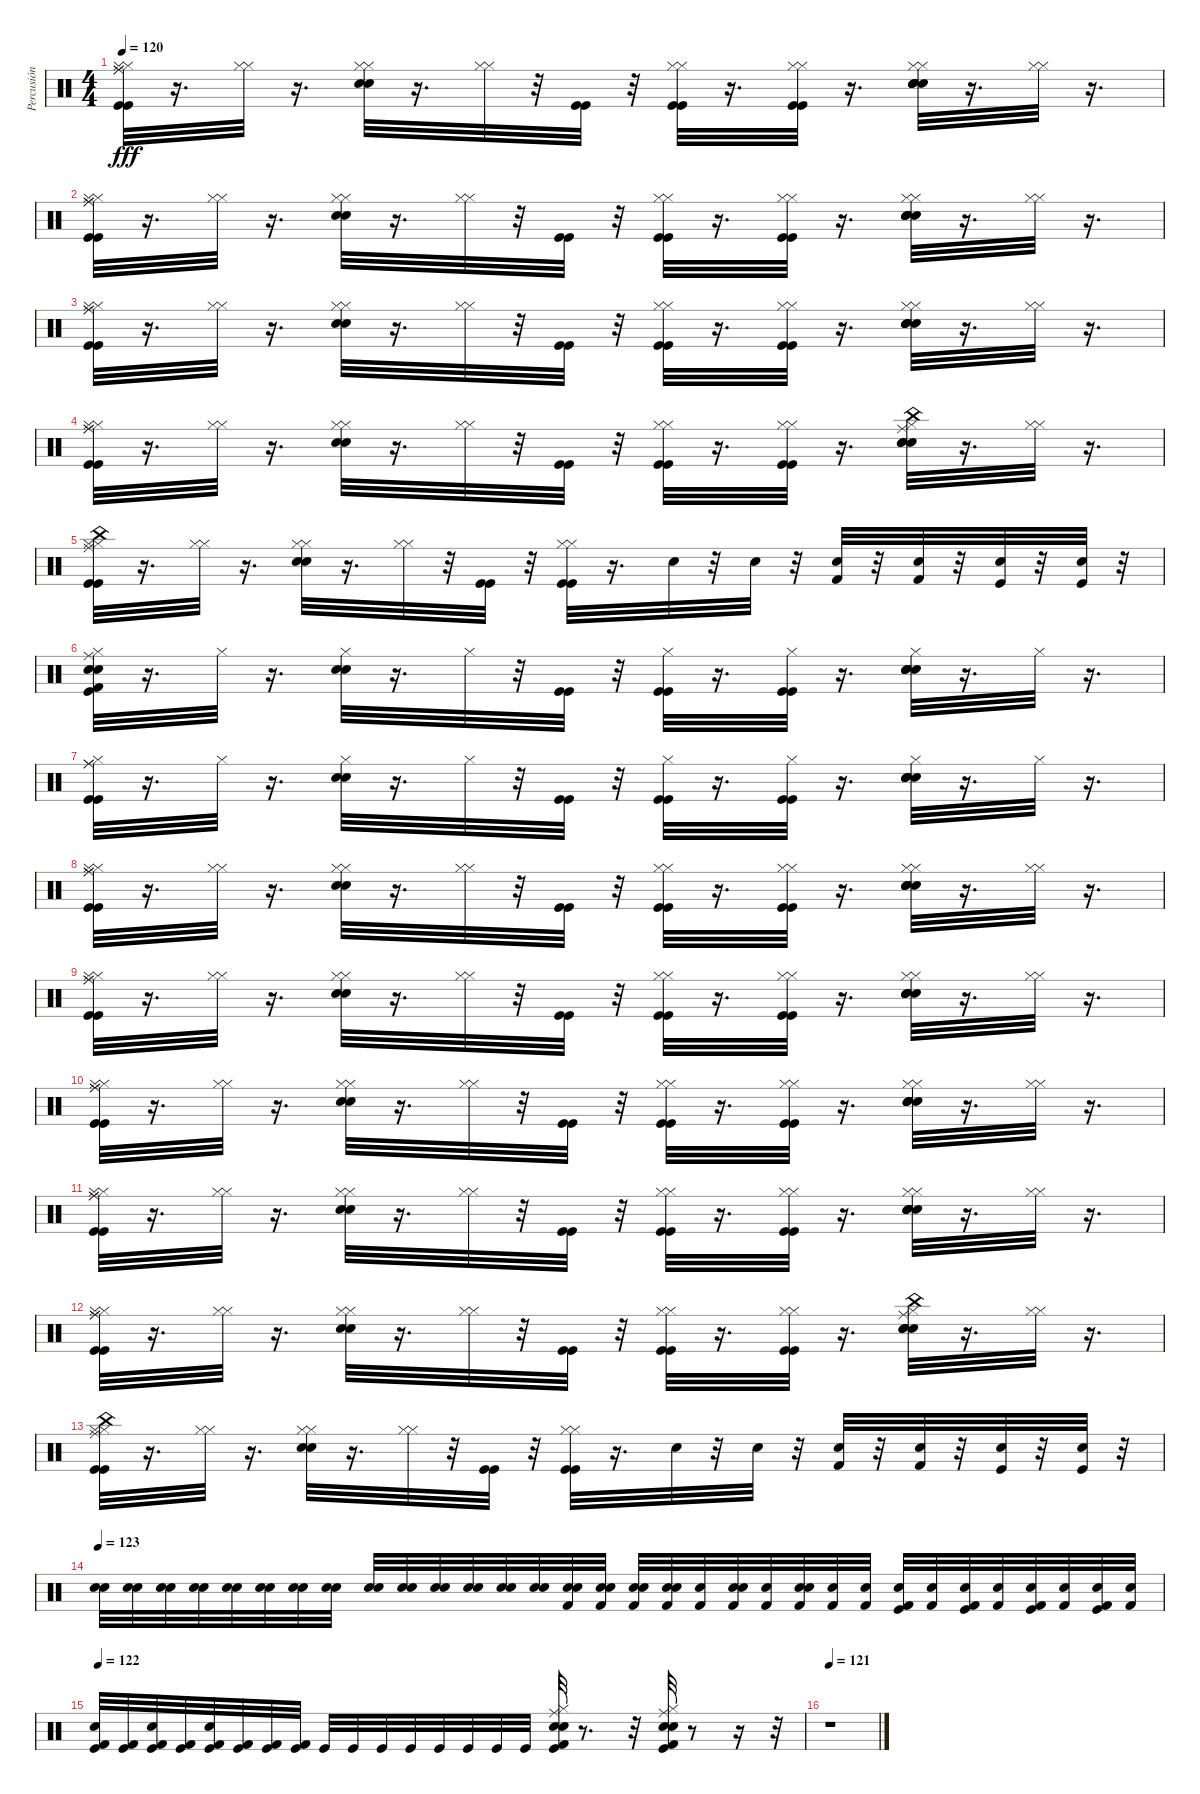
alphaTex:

\track ("Percusión" "Percusión") {instrument percussion}
\staff {score}
\articulation defaults
\ts (4 4)
\tempo 120
\clef neutral
\ks c
("Kick (hit)" "Hi-Hat (closed)" "Ride (middle)" "Kick (hit)" "Hi-Hat (closed)" "Ride (middle)").32{dy fff} r.16{d} ("Hi-Hat (closed)" "Hi-Hat (closed)").32 r.16{d} ("Snare (hit) 2" "Electric Snare (hit)" "Hi-Hat (closed)" "Hi-Hat (closed)").32 r.16{d} ("Hi-Hat (closed)" "Hi-Hat (closed)").32 r.32 ("Kick (hit)" "Kick (hit)").32 r.32 ("Kick (hit)" "Hi-Hat (closed)" "Kick (hit)" "Hi-Hat (closed)").32 r.16{d} ("Kick (hit)" "Hi-Hat (closed)" "Kick (hit)" "Hi-Hat (closed)").32 r.16{d} ("Snare (hit) 2" "Electric Snare (hit)" "Hi-Hat (closed)" "Snare (hit) 2" "Electric Snare (hit)" "Hi-Hat (closed)").32 r.16{d} ("Hi-Hat (closed)" "Hi-Hat (closed)").32 r.16{d} |
("Kick (hit)" "Hi-Hat (closed)" "Ride (middle)" "Kick (hit)" "Hi-Hat (closed)" "Ride (middle)").32 r.16{d} ("Hi-Hat (closed)" "Hi-Hat (closed)").32 r.16{d} ("Snare (hit) 2" "Electric Snare (hit)" "Hi-Hat (closed)" "Hi-Hat (closed)").32 r.16{d} ("Hi-Hat (closed)" "Hi-Hat (closed)").32 r.32 ("Kick (hit)" "Kick (hit)").32 r.32 ("Kick (hit)" "Hi-Hat (closed)" "Kick (hit)" "Hi-Hat (closed)").32 r.16{d} ("Kick (hit)" "Hi-Hat (closed)" "Kick (hit)" "Hi-Hat (closed)").32 r.16{d} ("Snare (hit) 2" "Electric Snare (hit)" "Hi-Hat (closed)" "Snare (hit) 2" "Electric Snare (hit)" "Hi-Hat (closed)").32 r.16{d} ("Hi-Hat (closed)" "Hi-Hat (closed)").32 r.16{d} |
("Kick (hit)" "Hi-Hat (closed)" "Ride (middle)" "Kick (hit)" "Hi-Hat (closed)" "Ride (middle)").32 r.16{d} ("Hi-Hat (closed)" "Hi-Hat (closed)").32 r.16{d} ("Snare (hit) 2" "Electric Snare (hit)" "Hi-Hat (closed)" "Hi-Hat (closed)").32 r.16{d} ("Hi-Hat (closed)" "Hi-Hat (closed)").32 r.32 ("Kick (hit)" "Kick (hit)").32 r.32 ("Kick (hit)" "Hi-Hat (closed)" "Kick (hit)" "Hi-Hat (closed)").32 r.16{d} ("Kick (hit)" "Hi-Hat (closed)" "Kick (hit)" "Hi-Hat (closed)").32 r.16{d} ("Snare (hit) 2" "Electric Snare (hit)" "Hi-Hat (closed)" "Snare (hit) 2" "Electric Snare (hit)" "Hi-Hat (closed)").32 r.16{d} ("Hi-Hat (closed)" "Hi-Hat (closed)").32 r.16{d} |
("Kick (hit)" "Hi-Hat (closed)" "Ride (middle)" "Kick (hit)" "Hi-Hat (closed)" "Ride (middle)").32 r.16{d} ("Hi-Hat (closed)" "Hi-Hat (closed)").32 r.16{d} ("Electric Snare (hit)" "Snare (hit) 2" "Hi-Hat (closed)" "Hi-Hat (closed)").32 r.16{d} ("Hi-Hat (closed)" "Hi-Hat (closed)").32 r.32 ("Kick (hit)" "Kick (hit)").32 r.32 ("Kick (hit)" "Hi-Hat (closed)" "Kick (hit)" "Hi-Hat (closed)").32 r.16{d} ("Kick (hit)" "Hi-Hat (closed)" "Kick (hit)" "Hi-Hat (closed)").32 r.16{d} ("Ride (middle)" "China (hit)" "Snare (hit) 2" "Electric Snare (hit)" "Hi-Hat (closed)" "Snare (hit) 2").32 r.16{d} ("Hi-Hat (closed)" "Hi-Hat (closed)").32 r.16{d} |
("China (hit)" "Kick (hit)" "Hi-Hat (closed)" "Ride (middle)" "Kick (hit)" "Hi-Hat (closed)").32 r.16{d} ("Hi-Hat (closed)" "Hi-Hat (closed)").32 r.16{d} ("Snare (hit) 2" "Electric Snare (hit)" "Hi-Hat (closed)" "Hi-Hat (closed)").32 r.16{d} ("Hi-Hat (closed)" "Hi-Hat (closed)").32 r.32 ("Kick (hit)" "Kick (hit)").32 r.32 ("Kick (hit)" "Hi-Hat (closed)" "Kick (hit)" "Hi-Hat (closed)").32 r.16{d} "Electric Snare (hit)".32 r.32 "Electric Snare (hit)".32 r.32 ("Kick (hit) 2" "Electric Snare (hit)").32 r.32 ("Kick (hit) 2" "Electric Snare (hit)").32 r.32 ("Snare (hit) 2" "Kick (hit)").32 r.32 ("Snare (hit) 2" "Kick (hit)").32 r.32 |
("Kick (hit) 2" "Snare (hit) 2" "Electric Snare (hit)" "Hi-Hat (closed)" "Kick (hit)" "Ride (middle)").32 r.16{d} "Hi-Hat (closed)".32 r.16{d} ("Snare (hit) 2" "Electric Snare (hit)" "Hi-Hat (closed)").32 r.16{d} "Hi-Hat (closed)".32 r.32 ("Kick (hit)" "Kick (hit)").32 r.32 ("Hi-Hat (closed)" "Kick (hit)" "Kick (hit)").32 r.16{d} ("Hi-Hat (closed)" "Kick (hit)" "Kick (hit)").32 r.16{d} ("Hi-Hat (closed)" "Snare (hit) 2" "Electric Snare (hit)" "Snare (hit) 2" "Electric Snare (hit)").32 r.16{d} "Hi-Hat (closed)".32 r.16{d} |
("Hi-Hat (closed)" "Kick (hit)" "Ride (middle)" "Kick (hit)" "Ride (middle)").32 r.16{d} "Hi-Hat (closed)".32 r.16{d} ("Snare (hit) 2" "Electric Snare (hit)" "Hi-Hat (closed)").32 r.16{d} "Hi-Hat (closed)".32 r.32 ("Kick (hit)" "Kick (hit)").32 r.32 ("Hi-Hat (closed)" "Kick (hit)" "Kick (hit)").32 r.16{d} ("Hi-Hat (closed)" "Kick (hit)" "Kick (hit)").32 r.16{d} ("Hi-Hat (closed)" "Snare (hit) 2" "Electric Snare (hit)" "Snare (hit) 2" "Electric Snare (hit)").32 r.16{d} "Hi-Hat (closed)".32 r.16{d} |
("Kick (hit)" "Hi-Hat (closed)" "Ride (middle)" "Kick (hit)" "Hi-Hat (closed)" "Ride (middle)").32 r.16{d} ("Hi-Hat (closed)" "Hi-Hat (closed)").32 r.16{d} ("Snare (hit) 2" "Electric Snare (hit)" "Hi-Hat (closed)" "Hi-Hat (closed)").32 r.16{d} ("Hi-Hat (closed)" "Hi-Hat (closed)").32 r.32 ("Kick (hit)" "Kick (hit)").32 r.32 ("Kick (hit)" "Hi-Hat (closed)" "Kick (hit)" "Hi-Hat (closed)").32 r.16{d} ("Kick (hit)" "Hi-Hat (closed)" "Kick (hit)" "Hi-Hat (closed)").32 r.16{d} ("Snare (hit) 2" "Electric Snare (hit)" "Hi-Hat (closed)" "Snare (hit) 2" "Electric Snare (hit)" "Hi-Hat (closed)").32 r.16{d} ("Hi-Hat (closed)" "Hi-Hat (closed)").32 r.16{d} |
("Kick (hit)" "Hi-Hat (closed)" "Ride (middle)" "Kick (hit)" "Hi-Hat (closed)" "Ride (middle)").32 r.16{d} ("Hi-Hat (closed)" "Hi-Hat (closed)").32 r.16{d} ("Snare (hit) 2" "Electric Snare (hit)" "Hi-Hat (closed)" "Hi-Hat (closed)").32 r.16{d} ("Hi-Hat (closed)" "Hi-Hat (closed)").32 r.32 ("Kick (hit)" "Kick (hit)").32 r.32 ("Kick (hit)" "Hi-Hat (closed)" "Kick (hit)" "Hi-Hat (closed)").32 r.16{d} ("Kick (hit)" "Hi-Hat (closed)" "Kick (hit)" "Hi-Hat (closed)").32 r.16{d} ("Snare (hit) 2" "Electric Snare (hit)" "Hi-Hat (closed)" "Snare (hit) 2" "Electric Snare (hit)" "Hi-Hat (closed)").32 r.16{d} ("Hi-Hat (closed)" "Hi-Hat (closed)").32 r.16{d} |
("Kick (hit)" "Hi-Hat (closed)" "Ride (middle)" "Kick (hit)" "Hi-Hat (closed)" "Ride (middle)").32 r.16{d} ("Hi-Hat (closed)" "Hi-Hat (closed)").32 r.16{d} ("Snare (hit) 2" "Electric Snare (hit)" "Hi-Hat (closed)" "Hi-Hat (closed)").32 r.16{d} ("Hi-Hat (closed)" "Hi-Hat (closed)").32 r.32 ("Kick (hit)" "Kick (hit)").32 r.32 ("Kick (hit)" "Hi-Hat (closed)" "Kick (hit)" "Hi-Hat (closed)").32 r.16{d} ("Kick (hit)" "Hi-Hat (closed)" "Kick (hit)" "Hi-Hat (closed)").32 r.16{d} ("Snare (hit) 2" "Electric Snare (hit)" "Hi-Hat (closed)" "Snare (hit) 2" "Electric Snare (hit)" "Hi-Hat (closed)").32 r.16{d} ("Hi-Hat (closed)" "Hi-Hat (closed)").32 r.16{d} |
("Kick (hit)" "Hi-Hat (closed)" "Ride (middle)" "Kick (hit)" "Hi-Hat (closed)" "Ride (middle)").32 r.16{d} ("Hi-Hat (closed)" "Hi-Hat (closed)").32 r.16{d} ("Snare (hit) 2" "Electric Snare (hit)" "Hi-Hat (closed)" "Hi-Hat (closed)").32 r.16{d} ("Hi-Hat (closed)" "Hi-Hat (closed)").32 r.32 ("Kick (hit)" "Kick (hit)").32 r.32 ("Kick (hit)" "Hi-Hat (closed)" "Kick (hit)" "Hi-Hat (closed)").32 r.16{d} ("Kick (hit)" "Hi-Hat (closed)" "Kick (hit)" "Hi-Hat (closed)").32 r.16{d} ("Snare (hit) 2" "Electric Snare (hit)" "Hi-Hat (closed)" "Snare (hit) 2" "Electric Snare (hit)" "Hi-Hat (closed)").32 r.16{d} ("Hi-Hat (closed)" "Hi-Hat (closed)").32 r.16{d} |
("Kick (hit)" "Hi-Hat (closed)" "Ride (middle)" "Kick (hit)" "Hi-Hat (closed)" "Ride (middle)").32 r.16{d} ("Hi-Hat (closed)" "Hi-Hat (closed)").32 r.16{d} ("Electric Snare (hit)" "Snare (hit) 2" "Hi-Hat (closed)" "Hi-Hat (closed)").32 r.16{d} ("Hi-Hat (closed)" "Hi-Hat (closed)").32 r.32 ("Kick (hit)" "Kick (hit)").32 r.32 ("Kick (hit)" "Hi-Hat (closed)" "Kick (hit)" "Hi-Hat (closed)").32 r.16{d} ("Kick (hit)" "Hi-Hat (closed)" "Kick (hit)" "Hi-Hat (closed)").32 r.16{d} ("Ride (middle)" "China (hit)" "Snare (hit) 2" "Electric Snare (hit)" "Hi-Hat (closed)" "Snare (hit) 2").32 r.16{d} ("Hi-Hat (closed)" "Hi-Hat (closed)").32 r.16{d} |
("China (hit)" "Kick (hit)" "Hi-Hat (closed)" "Ride (middle)" "Kick (hit)" "Hi-Hat (closed)").32 r.16{d} ("Hi-Hat (closed)" "Hi-Hat (closed)").32 r.16{d} ("Snare (hit) 2" "Electric Snare (hit)" "Hi-Hat (closed)" "Hi-Hat (closed)").32 r.16{d} ("Hi-Hat (closed)" "Hi-Hat (closed)").32 r.32 ("Kick (hit)" "Kick (hit)").32 r.32 ("Kick (hit)" "Hi-Hat (closed)" "Kick (hit)" "Hi-Hat (closed)").32 r.16{d} "Electric Snare (hit)".32 r.32 "Electric Snare (hit)".32 r.32 ("Kick (hit) 2" "Electric Snare (hit)").32 r.32 ("Kick (hit) 2" "Electric Snare (hit)").32 r.32 ("Snare (hit) 2" "Kick (hit)").32 r.32 ("Snare (hit) 2" "Kick (hit)").32 r.32 |
\tempo 123
("Electric Snare (hit)" "Snare (hit) 2").32 ("Electric Snare (hit)" "Snare (hit) 2").32 ("Electric Snare (hit)" "Snare (hit) 2").32 ("Electric Snare (hit)" "Snare (hit) 2").32 ("Electric Snare (hit)" "Snare (hit) 2").32 ("Electric Snare (hit)" "Snare (hit) 2").32 ("Electric Snare (hit)" "Snare (hit) 2").32 ("Electric Snare (hit)" "Snare (hit) 2").32 ("Electric Snare (hit)" "Snare (hit) 2").32 ("Electric Snare (hit)" "Snare (hit) 2").32 ("Electric Snare (hit)" "Snare (hit) 2").32 ("Electric Snare (hit)" "Snare (hit) 2").32 ("Electric Snare (hit)" "Snare (hit) 2").32 ("Electric Snare (hit)" "Snare (hit) 2").32 ("Kick (hit) 2" "Electric Snare (hit)" "Snare (hit) 2").32 ("Kick (hit) 2" "Electric Snare (hit)" "Snare (hit) 2").32 ("Electric Snare (hit)" "Snare (hit) 2" "Kick (hit) 2").32 ("Electric Snare (hit)" "Snare (hit) 2" "Kick (hit) 2").32 ("Snare (hit) 2" "Kick (hit) 2").32 ("Electric Snare (hit)" "Snare (hit) 2" "Kick (hit) 2").32 ("Snare (hit) 2" "Kick (hit) 2").32 ("Electric Snare (hit)" "Snare (hit) 2" "Kick (hit) 2").32 ("Snare (hit) 2" "Kick (hit) 2").32 ("Snare (hit) 2" "Kick (hit) 2").32 ("Snare (hit) 2" "Kick (hit) 2" "Kick (hit)").32 ("Snare (hit) 2" "Kick (hit) 2").32 ("Snare (hit) 2" "Kick (hit) 2" "Kick (hit)").32 ("Snare (hit) 2" "Kick (hit) 2").32 ("Snare (hit) 2" "Kick (hit)" "Kick (hit) 2").32 ("Snare (hit) 2" "Kick (hit) 2").32 ("Snare (hit) 2" "Kick (hit)" "Kick (hit) 2").32 ("Snare (hit) 2" "Kick (hit) 2").32 |
\tempo 122
("Snare (hit) 2" "Kick (hit)" "Kick (hit) 2").32 ("Kick (hit)" "Kick (hit) 2").32 ("Snare (hit) 2" "Kick (hit)" "Kick (hit) 2").32 ("Kick (hit)" "Kick (hit) 2").32 ("Kick (hit) 2" "Snare (hit) 2" "Kick (hit)").32 ("Kick (hit) 2" "Kick (hit)").32 ("Kick (hit) 2" "Kick (hit)").32 ("Kick (hit) 2" "Kick (hit)").32 "Kick (hit)".32 "Kick (hit)".32 "Kick (hit)".32 "Kick (hit)".32 "Kick (hit)".32 "Kick (hit)".32 "Kick (hit)".32 "Kick (hit)".32 ("Kick (hit)" "Kick (hit) 2" "Electric Snare (hit)" "Snare (hit) 2" "Hi-Hat (closed)" "Ride (middle)").32 r.8{d} r.32 ("Kick (hit)" "Kick (hit) 2" "Snare (hit) 2" "Electric Snare (hit)" "Hi-Hat (closed)" "Ride (middle)").32 r.8 r.16 r.32 |
\tempo 121
r.1
